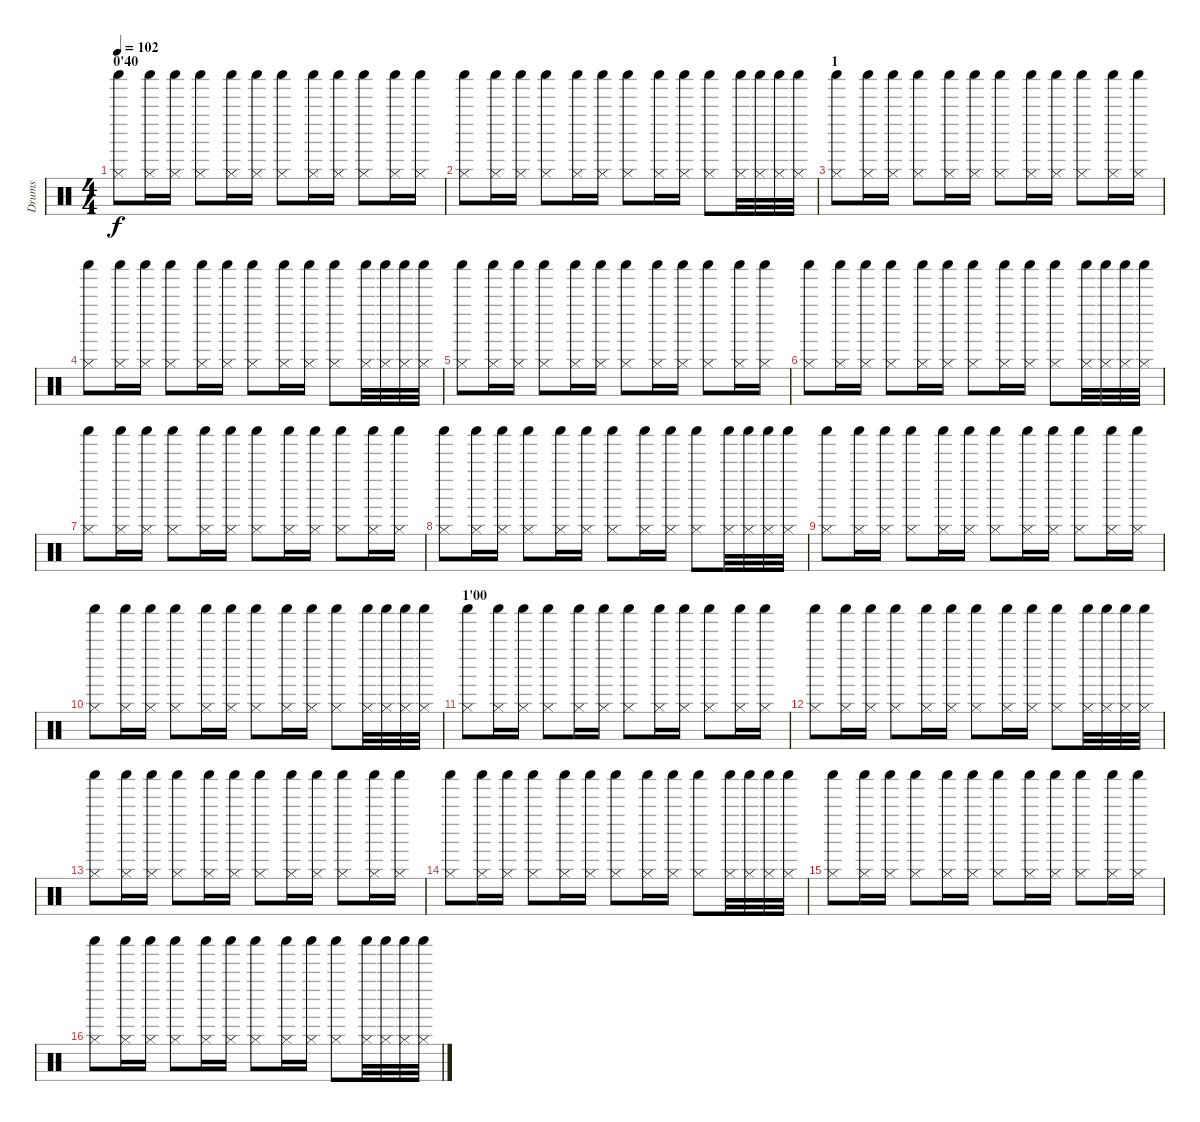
\track ("Drums" "Drums") {instrument percussion}
\staff {score}
\articulation defaults
\ts (4 4)
\section ("" "0'40")
\tempo 102
\clef neutral
\ks c
("Hi-Hat (closed)" "Shaker (hit)").8{dy f} ("Hi-Hat (closed)" "Shaker (hit)").16 ("Hi-Hat (closed)" "Shaker (hit)").16 ("Hi-Hat (closed)" "Shaker (hit)").8 ("Hi-Hat (closed)" "Shaker (hit)").16 ("Hi-Hat (closed)" "Shaker (hit)").16 ("Hi-Hat (closed)" "Shaker (hit)").8 ("Hi-Hat (closed)" "Shaker (hit)").16 ("Hi-Hat (closed)" "Shaker (hit)").16 ("Hi-Hat (closed)" "Shaker (hit)").8 ("Hi-Hat (closed)" "Shaker (hit)").16 ("Hi-Hat (closed)" "Shaker (hit)").16 |
("Hi-Hat (closed)" "Shaker (hit)").8 ("Hi-Hat (closed)" "Shaker (hit)").16 ("Hi-Hat (closed)" "Shaker (hit)").16 ("Hi-Hat (closed)" "Shaker (hit)").8 ("Hi-Hat (closed)" "Shaker (hit)").16 ("Hi-Hat (closed)" "Shaker (hit)").16 ("Hi-Hat (closed)" "Shaker (hit)").8 ("Hi-Hat (closed)" "Shaker (hit)").16 ("Hi-Hat (closed)" "Shaker (hit)").16 ("Hi-Hat (closed)" "Shaker (hit)").8 ("Hi-Hat (closed)" "Shaker (hit)").32 ("Hi-Hat (closed)" "Shaker (hit)").32 ("Hi-Hat (closed)" "Shaker (hit)").32 ("Hi-Hat (closed)" "Shaker (hit)").32 |
\section ("" "1")
("Hi-Hat (closed)" "Shaker (hit)").8 ("Hi-Hat (closed)" "Shaker (hit)").16 ("Hi-Hat (closed)" "Shaker (hit)").16 ("Hi-Hat (closed)" "Shaker (hit)").8 ("Hi-Hat (closed)" "Shaker (hit)").16 ("Hi-Hat (closed)" "Shaker (hit)").16 ("Hi-Hat (closed)" "Shaker (hit)").8 ("Hi-Hat (closed)" "Shaker (hit)").16 ("Hi-Hat (closed)" "Shaker (hit)").16 ("Hi-Hat (closed)" "Shaker (hit)").8 ("Hi-Hat (closed)" "Shaker (hit)").16 ("Hi-Hat (closed)" "Shaker (hit)").16 |
("Hi-Hat (closed)" "Shaker (hit)").8 ("Hi-Hat (closed)" "Shaker (hit)").16 ("Hi-Hat (closed)" "Shaker (hit)").16 ("Hi-Hat (closed)" "Shaker (hit)").8 ("Hi-Hat (closed)" "Shaker (hit)").16 ("Hi-Hat (closed)" "Shaker (hit)").16 ("Hi-Hat (closed)" "Shaker (hit)").8 ("Hi-Hat (closed)" "Shaker (hit)").16 ("Hi-Hat (closed)" "Shaker (hit)").16 ("Hi-Hat (closed)" "Shaker (hit)").8 ("Hi-Hat (closed)" "Shaker (hit)").32 ("Hi-Hat (closed)" "Shaker (hit)").32 ("Hi-Hat (closed)" "Shaker (hit)").32 ("Hi-Hat (closed)" "Shaker (hit)").32 |
("Hi-Hat (closed)" "Shaker (hit)").8 ("Hi-Hat (closed)" "Shaker (hit)").16 ("Hi-Hat (closed)" "Shaker (hit)").16 ("Hi-Hat (closed)" "Shaker (hit)").8 ("Hi-Hat (closed)" "Shaker (hit)").16 ("Hi-Hat (closed)" "Shaker (hit)").16 ("Hi-Hat (closed)" "Shaker (hit)").8 ("Hi-Hat (closed)" "Shaker (hit)").16 ("Hi-Hat (closed)" "Shaker (hit)").16 ("Hi-Hat (closed)" "Shaker (hit)").8 ("Hi-Hat (closed)" "Shaker (hit)").16 ("Hi-Hat (closed)" "Shaker (hit)").16 |
("Hi-Hat (closed)" "Shaker (hit)").8 ("Hi-Hat (closed)" "Shaker (hit)").16 ("Hi-Hat (closed)" "Shaker (hit)").16 ("Hi-Hat (closed)" "Shaker (hit)").8 ("Hi-Hat (closed)" "Shaker (hit)").16 ("Hi-Hat (closed)" "Shaker (hit)").16 ("Hi-Hat (closed)" "Shaker (hit)").8 ("Hi-Hat (closed)" "Shaker (hit)").16 ("Hi-Hat (closed)" "Shaker (hit)").16 ("Hi-Hat (closed)" "Shaker (hit)").8 ("Hi-Hat (closed)" "Shaker (hit)").32 ("Hi-Hat (closed)" "Shaker (hit)").32 ("Hi-Hat (closed)" "Shaker (hit)").32 ("Hi-Hat (closed)" "Shaker (hit)").32 |
("Hi-Hat (closed)" "Shaker (hit)").8 ("Hi-Hat (closed)" "Shaker (hit)").16 ("Hi-Hat (closed)" "Shaker (hit)").16 ("Hi-Hat (closed)" "Shaker (hit)").8 ("Hi-Hat (closed)" "Shaker (hit)").16 ("Hi-Hat (closed)" "Shaker (hit)").16 ("Hi-Hat (closed)" "Shaker (hit)").8 ("Hi-Hat (closed)" "Shaker (hit)").16 ("Hi-Hat (closed)" "Shaker (hit)").16 ("Hi-Hat (closed)" "Shaker (hit)").8 ("Hi-Hat (closed)" "Shaker (hit)").16 ("Hi-Hat (closed)" "Shaker (hit)").16 |
("Hi-Hat (closed)" "Shaker (hit)").8 ("Hi-Hat (closed)" "Shaker (hit)").16 ("Hi-Hat (closed)" "Shaker (hit)").16 ("Hi-Hat (closed)" "Shaker (hit)").8 ("Hi-Hat (closed)" "Shaker (hit)").16 ("Hi-Hat (closed)" "Shaker (hit)").16 ("Hi-Hat (closed)" "Shaker (hit)").8 ("Hi-Hat (closed)" "Shaker (hit)").16 ("Hi-Hat (closed)" "Shaker (hit)").16 ("Hi-Hat (closed)" "Shaker (hit)").8 ("Hi-Hat (closed)" "Shaker (hit)").32 ("Hi-Hat (closed)" "Shaker (hit)").32 ("Hi-Hat (closed)" "Shaker (hit)").32 ("Hi-Hat (closed)" "Shaker (hit)").32 |
("Hi-Hat (closed)" "Shaker (hit)").8 ("Hi-Hat (closed)" "Shaker (hit)").16 ("Hi-Hat (closed)" "Shaker (hit)").16 ("Hi-Hat (closed)" "Shaker (hit)").8 ("Hi-Hat (closed)" "Shaker (hit)").16 ("Hi-Hat (closed)" "Shaker (hit)").16 ("Hi-Hat (closed)" "Shaker (hit)").8 ("Hi-Hat (closed)" "Shaker (hit)").16 ("Hi-Hat (closed)" "Shaker (hit)").16 ("Hi-Hat (closed)" "Shaker (hit)").8 ("Hi-Hat (closed)" "Shaker (hit)").16 ("Hi-Hat (closed)" "Shaker (hit)").16 |
("Hi-Hat (closed)" "Shaker (hit)").8 ("Hi-Hat (closed)" "Shaker (hit)").16 ("Hi-Hat (closed)" "Shaker (hit)").16 ("Hi-Hat (closed)" "Shaker (hit)").8 ("Hi-Hat (closed)" "Shaker (hit)").16 ("Hi-Hat (closed)" "Shaker (hit)").16 ("Hi-Hat (closed)" "Shaker (hit)").8 ("Hi-Hat (closed)" "Shaker (hit)").16 ("Hi-Hat (closed)" "Shaker (hit)").16 ("Hi-Hat (closed)" "Shaker (hit)").8 ("Hi-Hat (closed)" "Shaker (hit)").32 ("Hi-Hat (closed)" "Shaker (hit)").32 ("Hi-Hat (closed)" "Shaker (hit)").32 ("Hi-Hat (closed)" "Shaker (hit)").32 |
\section ("" "1'00")
("Hi-Hat (closed)" "Shaker (hit)").8 ("Hi-Hat (closed)" "Shaker (hit)").16 ("Hi-Hat (closed)" "Shaker (hit)").16 ("Hi-Hat (closed)" "Shaker (hit)").8 ("Hi-Hat (closed)" "Shaker (hit)").16 ("Hi-Hat (closed)" "Shaker (hit)").16 ("Hi-Hat (closed)" "Shaker (hit)").8 ("Hi-Hat (closed)" "Shaker (hit)").16 ("Hi-Hat (closed)" "Shaker (hit)").16 ("Hi-Hat (closed)" "Shaker (hit)").8 ("Hi-Hat (closed)" "Shaker (hit)").16 ("Hi-Hat (closed)" "Shaker (hit)").16 |
("Hi-Hat (closed)" "Shaker (hit)").8 ("Hi-Hat (closed)" "Shaker (hit)").16 ("Hi-Hat (closed)" "Shaker (hit)").16 ("Hi-Hat (closed)" "Shaker (hit)").8 ("Hi-Hat (closed)" "Shaker (hit)").16 ("Hi-Hat (closed)" "Shaker (hit)").16 ("Hi-Hat (closed)" "Shaker (hit)").8 ("Hi-Hat (closed)" "Shaker (hit)").16 ("Hi-Hat (closed)" "Shaker (hit)").16 ("Hi-Hat (closed)" "Shaker (hit)").8 ("Hi-Hat (closed)" "Shaker (hit)").32 ("Hi-Hat (closed)" "Shaker (hit)").32 ("Hi-Hat (closed)" "Shaker (hit)").32 ("Hi-Hat (closed)" "Shaker (hit)").32 |
("Hi-Hat (closed)" "Shaker (hit)").8 ("Hi-Hat (closed)" "Shaker (hit)").16 ("Hi-Hat (closed)" "Shaker (hit)").16 ("Hi-Hat (closed)" "Shaker (hit)").8 ("Hi-Hat (closed)" "Shaker (hit)").16 ("Hi-Hat (closed)" "Shaker (hit)").16 ("Hi-Hat (closed)" "Shaker (hit)").8 ("Hi-Hat (closed)" "Shaker (hit)").16 ("Hi-Hat (closed)" "Shaker (hit)").16 ("Hi-Hat (closed)" "Shaker (hit)").8 ("Hi-Hat (closed)" "Shaker (hit)").16 ("Hi-Hat (closed)" "Shaker (hit)").16 |
("Hi-Hat (closed)" "Shaker (hit)").8 ("Hi-Hat (closed)" "Shaker (hit)").16 ("Hi-Hat (closed)" "Shaker (hit)").16 ("Hi-Hat (closed)" "Shaker (hit)").8 ("Hi-Hat (closed)" "Shaker (hit)").16 ("Hi-Hat (closed)" "Shaker (hit)").16 ("Hi-Hat (closed)" "Shaker (hit)").8 ("Hi-Hat (closed)" "Shaker (hit)").16 ("Hi-Hat (closed)" "Shaker (hit)").16 ("Hi-Hat (closed)" "Shaker (hit)").8 ("Hi-Hat (closed)" "Shaker (hit)").32 ("Hi-Hat (closed)" "Shaker (hit)").32 ("Hi-Hat (closed)" "Shaker (hit)").32 ("Hi-Hat (closed)" "Shaker (hit)").32 |
("Hi-Hat (closed)" "Shaker (hit)").8 ("Hi-Hat (closed)" "Shaker (hit)").16 ("Hi-Hat (closed)" "Shaker (hit)").16 ("Hi-Hat (closed)" "Shaker (hit)").8 ("Hi-Hat (closed)" "Shaker (hit)").16 ("Hi-Hat (closed)" "Shaker (hit)").16 ("Hi-Hat (closed)" "Shaker (hit)").8 ("Hi-Hat (closed)" "Shaker (hit)").16 ("Hi-Hat (closed)" "Shaker (hit)").16 ("Hi-Hat (closed)" "Shaker (hit)").8 ("Hi-Hat (closed)" "Shaker (hit)").16 ("Hi-Hat (closed)" "Shaker (hit)").16 |
("Hi-Hat (closed)" "Shaker (hit)").8 ("Hi-Hat (closed)" "Shaker (hit)").16 ("Hi-Hat (closed)" "Shaker (hit)").16 ("Hi-Hat (closed)" "Shaker (hit)").8 ("Hi-Hat (closed)" "Shaker (hit)").16 ("Hi-Hat (closed)" "Shaker (hit)").16 ("Hi-Hat (closed)" "Shaker (hit)").8 ("Hi-Hat (closed)" "Shaker (hit)").16 ("Hi-Hat (closed)" "Shaker (hit)").16 ("Hi-Hat (closed)" "Shaker (hit)").8 ("Hi-Hat (closed)" "Shaker (hit)").32 ("Hi-Hat (closed)" "Shaker (hit)").32 ("Hi-Hat (closed)" "Shaker (hit)").32 ("Hi-Hat (closed)" "Shaker (hit)").32
